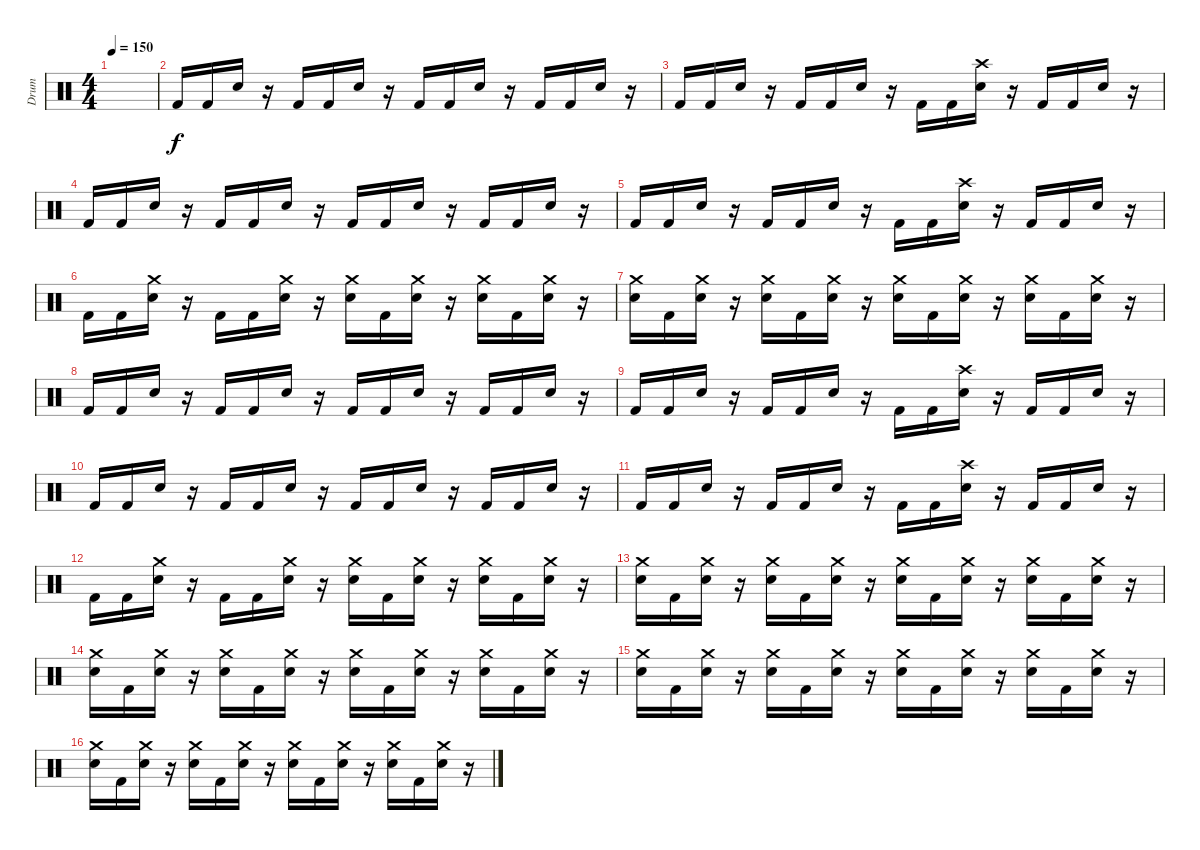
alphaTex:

\track ("Drum" "Drum") {instrument percussion}
\staff {score}
\articulation defaults
\ts (4 4)
\tempo 150
\clef neutral
\ks c
|
"Kick (hit) 2".16 "Kick (hit) 2".16 "Snare (hit) 2".16 r.16 "Kick (hit) 2".16 "Kick (hit) 2".16 "Snare (hit) 2".16 r.16 "Kick (hit) 2".16 "Kick (hit) 2".16 "Snare (hit) 2".16 r.16 "Kick (hit) 2".16 "Kick (hit) 2".16 "Snare (hit) 2".16 r.16 |
"Kick (hit) 2".16 "Kick (hit) 2".16 "Snare (hit) 2".16 r.16 "Kick (hit) 2".16 "Kick (hit) 2".16 "Snare (hit) 2".16 r.16 "Kick (hit) 2".16 "Kick (hit) 2".16 ("Electric Snare (hit)" "Crash high (hit)").16 r.16 "Kick (hit) 2".16 "Kick (hit) 2".16 "Snare (hit) 2".16 r.16 |
"Kick (hit) 2".16 "Kick (hit) 2".16 "Snare (hit) 2".16 r.16 "Kick (hit) 2".16 "Kick (hit) 2".16 "Snare (hit) 2".16 r.16 "Kick (hit) 2".16 "Kick (hit) 2".16 "Snare (hit) 2".16 r.16 "Kick (hit) 2".16 "Kick (hit) 2".16 "Snare (hit) 2".16 r.16 |
"Kick (hit) 2".16 "Kick (hit) 2".16 "Snare (hit) 2".16 r.16 "Kick (hit) 2".16 "Kick (hit) 2".16 "Snare (hit) 2".16 r.16 "Kick (hit) 2".16 "Kick (hit) 2".16 ("Electric Snare (hit)" "Crash high (hit)").16 r.16 "Kick (hit) 2".16 "Kick (hit) 2".16 "Snare (hit) 2".16 r.16 |
"Kick (hit) 2".16 "Kick (hit) 2".16 ("Electric Snare (hit)" "Crash medium (hit)").16 r.16 "Kick (hit) 2".16 "Kick (hit) 2".16 ("Electric Snare (hit)" "Crash medium (hit)").16 r.16 ("Electric Snare (hit)" "Crash medium (hit)").16 "Kick (hit) 2".16 ("Electric Snare (hit)" "Crash medium (hit)").16 r.16 ("Electric Snare (hit)" "Crash medium (hit)").16 "Kick (hit) 2".16 ("Electric Snare (hit)" "Crash medium (hit)").16 r.16 |
("Electric Snare (hit)" "Crash medium (hit)").16 "Kick (hit) 2".16 ("Electric Snare (hit)" "Crash medium (hit)").16 r.16 ("Electric Snare (hit)" "Crash medium (hit)").16 "Kick (hit) 2".16 ("Electric Snare (hit)" "Crash medium (hit)").16 r.16 ("Electric Snare (hit)" "Crash medium (hit)").16 "Kick (hit) 2".16 ("Electric Snare (hit)" "Crash medium (hit)").16 r.16 ("Electric Snare (hit)" "Crash medium (hit)").16 "Kick (hit) 2".16 ("Electric Snare (hit)" "Crash medium (hit)").16 r.16 |
"Kick (hit) 2".16 "Kick (hit) 2".16 "Snare (hit) 2".16 r.16 "Kick (hit) 2".16 "Kick (hit) 2".16 "Snare (hit) 2".16 r.16 "Kick (hit) 2".16 "Kick (hit) 2".16 "Snare (hit) 2".16 r.16 "Kick (hit) 2".16 "Kick (hit) 2".16 "Snare (hit) 2".16 r.16 |
"Kick (hit) 2".16 "Kick (hit) 2".16 "Snare (hit) 2".16 r.16 "Kick (hit) 2".16 "Kick (hit) 2".16 "Snare (hit) 2".16 r.16 "Kick (hit) 2".16 "Kick (hit) 2".16 ("Electric Snare (hit)" "Crash high (hit)").16 r.16 "Kick (hit) 2".16 "Kick (hit) 2".16 "Snare (hit) 2".16 r.16 |
"Kick (hit) 2".16 "Kick (hit) 2".16 "Snare (hit) 2".16 r.16 "Kick (hit) 2".16 "Kick (hit) 2".16 "Snare (hit) 2".16 r.16 "Kick (hit) 2".16 "Kick (hit) 2".16 "Snare (hit) 2".16 r.16 "Kick (hit) 2".16 "Kick (hit) 2".16 "Snare (hit) 2".16 r.16 |
"Kick (hit) 2".16 "Kick (hit) 2".16 "Snare (hit) 2".16 r.16 "Kick (hit) 2".16 "Kick (hit) 2".16 "Snare (hit) 2".16 r.16 "Kick (hit) 2".16 "Kick (hit) 2".16 ("Electric Snare (hit)" "Crash high (hit)").16 r.16 "Kick (hit) 2".16 "Kick (hit) 2".16 "Snare (hit) 2".16 r.16 |
"Kick (hit) 2".16 "Kick (hit) 2".16 ("Electric Snare (hit)" "Crash medium (hit)").16 r.16 "Kick (hit) 2".16 "Kick (hit) 2".16 ("Electric Snare (hit)" "Crash medium (hit)").16 r.16 ("Electric Snare (hit)" "Crash medium (hit)").16 "Kick (hit) 2".16 ("Electric Snare (hit)" "Crash medium (hit)").16 r.16 ("Electric Snare (hit)" "Crash medium (hit)").16 "Kick (hit) 2".16 ("Electric Snare (hit)" "Crash medium (hit)").16 r.16 |
("Electric Snare (hit)" "Crash medium (hit)").16 "Kick (hit) 2".16 ("Electric Snare (hit)" "Crash medium (hit)").16 r.16 ("Electric Snare (hit)" "Crash medium (hit)").16 "Kick (hit) 2".16 ("Electric Snare (hit)" "Crash medium (hit)").16 r.16 ("Electric Snare (hit)" "Crash medium (hit)").16 "Kick (hit) 2".16 ("Electric Snare (hit)" "Crash medium (hit)").16 r.16 ("Electric Snare (hit)" "Crash medium (hit)").16 "Kick (hit) 2".16 ("Electric Snare (hit)" "Crash medium (hit)").16 r.16 |
("Electric Snare (hit)" "Crash medium (hit)").16 "Kick (hit) 2".16 ("Electric Snare (hit)" "Crash medium (hit)").16 r.16 ("Electric Snare (hit)" "Crash medium (hit)").16 "Kick (hit) 2".16 ("Electric Snare (hit)" "Crash medium (hit)").16 r.16 ("Electric Snare (hit)" "Crash medium (hit)").16 "Kick (hit) 2".16 ("Electric Snare (hit)" "Crash medium (hit)").16 r.16 ("Electric Snare (hit)" "Crash medium (hit)").16 "Kick (hit) 2".16 ("Electric Snare (hit)" "Crash medium (hit)").16 r.16 |
("Electric Snare (hit)" "Crash medium (hit)").16 "Kick (hit) 2".16 ("Electric Snare (hit)" "Crash medium (hit)").16 r.16 ("Electric Snare (hit)" "Crash medium (hit)").16 "Kick (hit) 2".16 ("Electric Snare (hit)" "Crash medium (hit)").16 r.16 ("Electric Snare (hit)" "Crash medium (hit)").16 "Kick (hit) 2".16 ("Electric Snare (hit)" "Crash medium (hit)").16 r.16 ("Electric Snare (hit)" "Crash medium (hit)").16 "Kick (hit) 2".16 ("Electric Snare (hit)" "Crash medium (hit)").16 r.16 |
("Electric Snare (hit)" "Crash medium (hit)").16 "Kick (hit) 2".16 ("Electric Snare (hit)" "Crash medium (hit)").16 r.16 ("Electric Snare (hit)" "Crash medium (hit)").16 "Kick (hit) 2".16 ("Electric Snare (hit)" "Crash medium (hit)").16 r.16 ("Electric Snare (hit)" "Crash medium (hit)").16 "Kick (hit) 2".16 ("Electric Snare (hit)" "Crash medium (hit)").16 r.16 ("Electric Snare (hit)" "Crash medium (hit)").16 "Kick (hit) 2".16 ("Electric Snare (hit)" "Crash medium (hit)").16 r.16
